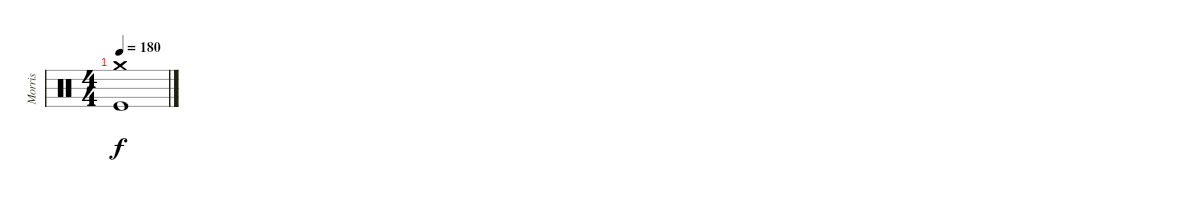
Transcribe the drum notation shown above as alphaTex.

\track ("Morris" "Morris") {instrument percussion}
\staff {score}
\articulation defaults
\ts (4 4)
\tempo 180
\clef neutral
\ks c
("Crash medium (hit)" "Kick (hit)").1{dy f}
